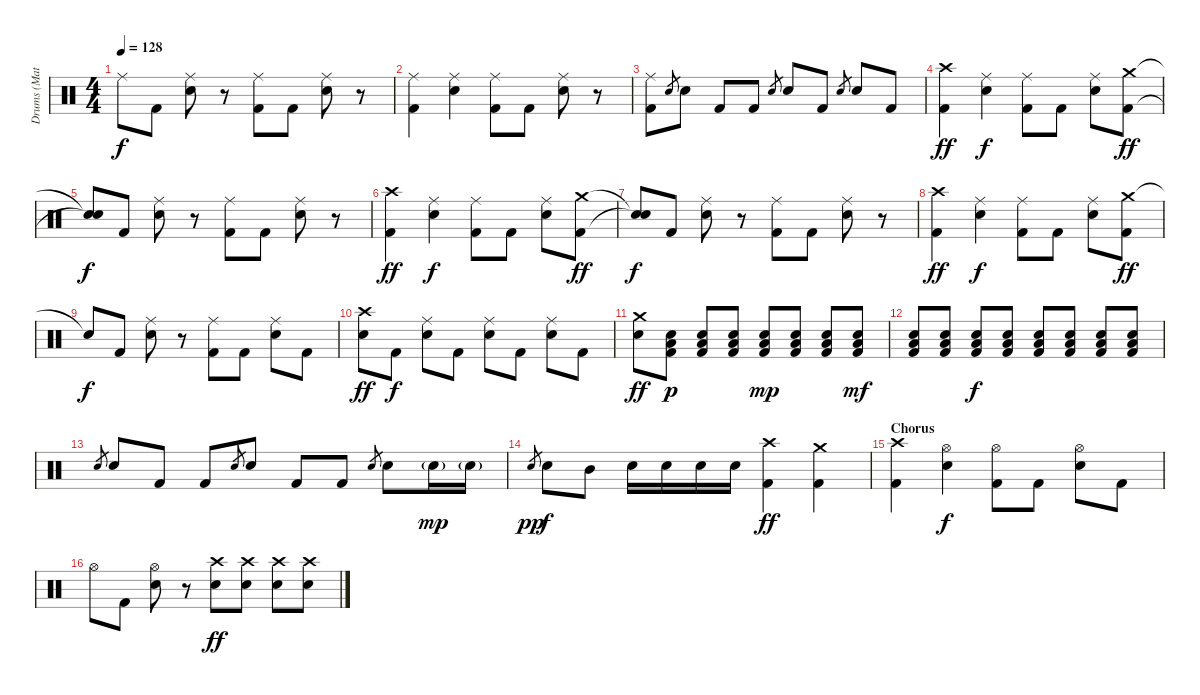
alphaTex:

\track ("Drums (Matt Sorum)" "Drums (Mat") {instrument percussion}
\staff {score}
\articulation defaults
\ts (4 4)
\tempo 128
\clef neutral
\ks c "Ride (middle)".8{dy f} "Kick (hit) 2".8
("Ride (middle)" "Snare (hit) 2").8 r.8 ("Ride (middle)" "Kick (hit) 2").8 "Kick (hit) 2".8 ("Ride (middle)" "Snare (hit) 2").8 r.8 |
("Ride (middle)" "Kick (hit) 2").4 ("Ride (middle)" "Snare (hit) 2").4 ("Ride (middle)" "Kick (hit) 2").8 "Kick (hit) 2".8 ("Ride (middle)" "Snare (hit) 2").8 r.8 |
("Ride (middle)" "Kick (hit) 2").8 "Snare (hit) 2".8{gr} "Snare (hit) 2".8 "Kick (hit) 2".8 "Kick (hit) 2".8 "Snare (hit) 2".8{gr} "Snare (hit) 2".8 "Kick (hit) 2".8 "Snare (hit) 2".8{gr} "Snare (hit) 2".8 "Kick (hit) 2".8 |
("Crash high (hit)" "Kick (hit) 2").4{dy ff} ("Ride (middle)" "Snare (hit) 2").4{dy f} ("Ride (middle)" "Kick (hit) 2").8 "Kick (hit) 2".8 ("Ride (middle)" "Snare (hit) 2").8 ("Crash medium (hit)" "Kick (hit) 2").8{dy ff} |
("Snare (hit)"{t} "Snare (hit)"{t}).8{dy f} "Kick (hit) 2".8 ("Ride (middle)" "Snare (hit) 2").8 r.8 ("Ride (middle)" "Kick (hit) 2").8 "Kick (hit) 2".8 ("Ride (middle)" "Snare (hit) 2").8 r.8 |
("Crash high (hit)" "Kick (hit) 2").4{dy ff} ("Ride (middle)" "Snare (hit) 2").4{dy f} ("Ride (middle)" "Kick (hit) 2").8 "Kick (hit) 2".8 ("Ride (middle)" "Snare (hit) 2").8 ("Crash medium (hit)" "Kick (hit) 2").8{dy ff} |
("Snare (hit)"{t} "Snare (hit)"{t}).8{dy f} "Kick (hit) 2".8 ("Ride (middle)" "Snare (hit) 2").8 r.8 ("Ride (middle)" "Kick (hit) 2").8 "Kick (hit) 2".8 ("Ride (middle)" "Snare (hit) 2").8 r.8 |
("Crash high (hit)" "Kick (hit) 2").4{dy ff} ("Ride (middle)" "Snare (hit) 2").4{dy f} ("Ride (middle)" "Kick (hit) 2").8 "Kick (hit) 2".8 ("Ride (middle)" "Snare (hit) 2").8 ("Crash medium (hit)" "Kick (hit) 2").8{dy ff} |
"Snare (hit)"{t}.8{dy f} "Kick (hit) 2".8 ("Ride (middle)" "Snare (hit) 2").8 r.8 ("Ride (middle)" "Kick (hit) 2").8 "Kick (hit) 2".8 ("Ride (middle)" "Snare (hit) 2").8 "Kick (hit) 2".8 |
("Crash high (hit)" "Snare (hit) 2").8{dy ff} "Kick (hit) 2".8{dy f} ("Ride (middle)" "Snare (hit) 2").8 "Kick (hit) 2".8 ("Ride (middle)" "Snare (hit) 2").8 "Kick (hit) 2".8 ("Ride (middle)" "Snare (hit) 2").8 "Kick (hit) 2".8 |
("Crash medium (hit)" "Snare (hit) 2").8{dy ff} ("Low Floor Tom (hit)" "Snare (hit) 2" "Kick (hit) 2").8{dy p} ("Low Floor Tom (hit)" "Snare (hit) 2" "Kick (hit) 2").8 ("Low Floor Tom (hit)" "Snare (hit) 2" "Kick (hit) 2").8 ("Low Floor Tom (hit)" "Snare (hit) 2" "Kick (hit) 2").8{dy mp} ("Low Floor Tom (hit)" "Snare (hit) 2" "Kick (hit) 2").8 ("Low Floor Tom (hit)" "Snare (hit) 2" "Kick (hit) 2").8 ("Low Floor Tom (hit)" "Snare (hit) 2" "Kick (hit) 2").8{dy mf} |
("Low Floor Tom (hit)" "Snare (hit) 2" "Kick (hit) 2").8 ("Low Floor Tom (hit)" "Snare (hit) 2" "Kick (hit) 2").8 ("Low Floor Tom (hit)" "Snare (hit) 2" "Kick (hit) 2").8{dy f} ("Low Floor Tom (hit)" "Snare (hit) 2" "Kick (hit) 2").8 ("Low Floor Tom (hit)" "Snare (hit) 2" "Kick (hit) 2").8 ("Low Floor Tom (hit)" "Snare (hit) 2" "Kick (hit) 2").8 ("Low Floor Tom (hit)" "Snare (hit) 2" "Kick (hit) 2").8 ("Low Floor Tom (hit)" "Snare (hit) 2" "Kick (hit) 2").8 |
"Snare (hit) 2".8{gr} "Snare (hit) 2".8 "Kick (hit) 2".8 "Kick (hit) 2".8 "Snare (hit) 2".8{gr} "Snare (hit) 2".8 "Kick (hit) 2".8 "Kick (hit) 2".8 "Snare (hit) 2".8{gr} "Snare (hit) 2".8 "Snare (hit) 2"{g}.16{dy mp} "Snare (hit) 2"{g}.16 |
"Snare (hit) 2".8{gr dy pp} "Snare (hit) 2".8{dy f} "Mid Tom (hit)".8 "Snare (hit) 2".16 "Snare (hit) 2".16 "Snare (hit) 2".16 "Snare (hit) 2".16 ("Crash high (hit)" "Kick (hit) 2").4{dy ff} ("Crash medium (hit)" "Kick (hit) 2").4 |
\section ("" "Chorus")
("Crash high (hit)" "Kick (hit) 2").4 ("Hi-Hat (open)" "Snare (hit) 2").4{dy f} ("Hi-Hat (open)" "Kick (hit) 2").8 "Kick (hit) 2".8 ("Hi-Hat (open)" "Snare (hit) 2").8 "Kick (hit) 2".8 |
"Hi-Hat (open)".8 "Kick (hit) 2".8 ("Hi-Hat (open)" "Snare (hit) 2").8 r.8 ("Crash high (hit)" "Snare (hit) 2").8{dy ff} ("Crash high (hit)" "Snare (hit) 2").8 ("Crash high (hit)" "Snare (hit) 2").8 ("Crash high (hit)" "Snare (hit) 2").8
